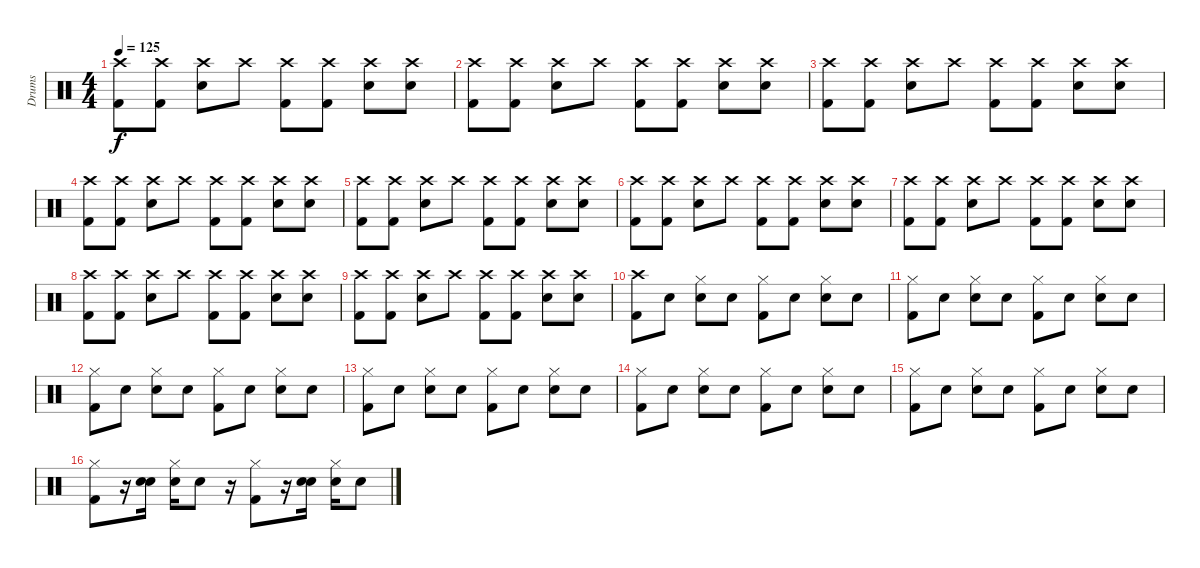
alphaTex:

\track ("Drums" "Drums") {instrument percussion}
\staff {score}
\articulation defaults
\ts (4 4)
\tempo 125
\clef neutral
\ks c
("Kick (hit) 2" "Crash high (hit)").8{dy f} ("Kick (hit) 2" "Crash high (hit)").8 ("Snare (hit) 2" "Crash high (hit)").8 "Crash high (hit)".8 ("Kick (hit) 2" "Crash high (hit)").8 ("Kick (hit) 2" "Crash high (hit)").8 ("Snare (hit) 2" "Crash high (hit)").8 ("Snare (hit)" "Crash high (hit)").8 |
("Kick (hit) 2" "Crash high (hit)").8 ("Kick (hit) 2" "Crash high (hit)").8 ("Snare (hit) 2" "Crash high (hit)").8 "Crash high (hit)".8 ("Kick (hit) 2" "Crash high (hit)").8 ("Kick (hit) 2" "Crash high (hit)").8 ("Snare (hit) 2" "Crash high (hit)").8 ("Snare (hit)" "Crash high (hit)").8 |
("Kick (hit) 2" "Crash high (hit)").8 ("Kick (hit) 2" "Crash high (hit)").8 ("Snare (hit) 2" "Crash high (hit)").8 "Crash high (hit)".8 ("Kick (hit) 2" "Crash high (hit)").8 ("Kick (hit) 2" "Crash high (hit)").8 ("Snare (hit) 2" "Crash high (hit)").8 ("Snare (hit)" "Crash high (hit)").8 |
("Kick (hit) 2" "Crash high (hit)").8 ("Kick (hit) 2" "Crash high (hit)").8 ("Snare (hit) 2" "Crash high (hit)").8 "Crash high (hit)".8 ("Kick (hit) 2" "Crash high (hit)").8 ("Kick (hit) 2" "Crash high (hit)").8 ("Snare (hit) 2" "Crash high (hit)").8 ("Snare (hit)" "Crash high (hit)").8 |
("Kick (hit) 2" "Crash high (hit)").8 ("Kick (hit) 2" "Crash high (hit)").8 ("Snare (hit) 2" "Crash high (hit)").8 "Crash high (hit)".8 ("Kick (hit) 2" "Crash high (hit)").8 ("Kick (hit) 2" "Crash high (hit)").8 ("Snare (hit) 2" "Crash high (hit)").8 ("Snare (hit)" "Crash high (hit)").8 |
("Kick (hit) 2" "Crash high (hit)").8 ("Kick (hit) 2" "Crash high (hit)").8 ("Snare (hit) 2" "Crash high (hit)").8 "Crash high (hit)".8 ("Kick (hit) 2" "Crash high (hit)").8 ("Kick (hit) 2" "Crash high (hit)").8 ("Snare (hit) 2" "Crash high (hit)").8 ("Snare (hit)" "Crash high (hit)").8 |
("Kick (hit) 2" "Crash high (hit)").8 ("Kick (hit) 2" "Crash high (hit)").8 ("Snare (hit) 2" "Crash high (hit)").8 "Crash high (hit)".8 ("Kick (hit) 2" "Crash high (hit)").8 ("Kick (hit) 2" "Crash high (hit)").8 ("Snare (hit) 2" "Crash high (hit)").8 ("Snare (hit)" "Crash high (hit)").8 |
("Kick (hit) 2" "Crash high (hit)").8 ("Kick (hit) 2" "Crash high (hit)").8 ("Snare (hit) 2" "Crash high (hit)").8 "Crash high (hit)".8 ("Kick (hit) 2" "Crash high (hit)").8 ("Kick (hit) 2" "Crash high (hit)").8 ("Snare (hit) 2" "Crash high (hit)").8 ("Snare (hit)" "Crash high (hit)").8 |
("Kick (hit) 2" "Crash high (hit)").8 ("Kick (hit) 2" "Crash high (hit)").8 ("Snare (hit) 2" "Crash high (hit)").8 "Crash high (hit)".8 ("Kick (hit) 2" "Crash high (hit)").8 ("Kick (hit) 2" "Crash high (hit)").8 ("Snare (hit) 2" "Crash high (hit)").8 ("Snare (hit)" "Crash high (hit)").8 |
("Kick (hit) 2" "Crash high (hit)").8 "Snare (hit)".8 ("Snare (hit) 2" "Hi-Hat (closed)").8 "Snare (hit)".8 ("Kick (hit) 2" "Hi-Hat (closed)").8 "Snare (hit)".8 ("Snare (hit) 2" "Hi-Hat (closed)").8 "Snare (hit)".8 |
("Kick (hit) 2" "Hi-Hat (closed)").8 "Snare (hit)".8 ("Snare (hit) 2" "Hi-Hat (closed)").8 "Snare (hit)".8 ("Kick (hit) 2" "Hi-Hat (closed)").8 "Snare (hit)".8 ("Snare (hit) 2" "Hi-Hat (closed)").8 "Snare (hit)".8 |
("Kick (hit) 2" "Hi-Hat (closed)").8 "Snare (hit)".8 ("Snare (hit) 2" "Hi-Hat (closed)").8 "Snare (hit)".8 ("Kick (hit) 2" "Hi-Hat (closed)").8 "Snare (hit)".8 ("Snare (hit) 2" "Hi-Hat (closed)").8 "Snare (hit)".8 |
("Kick (hit) 2" "Hi-Hat (closed)").8 "Snare (hit)".8 ("Snare (hit) 2" "Hi-Hat (closed)").8 "Snare (hit)".8 ("Kick (hit) 2" "Hi-Hat (closed)").8 "Snare (hit)".8 ("Snare (hit) 2" "Hi-Hat (closed)").8 "Snare (hit)".8 |
("Kick (hit) 2" "Hi-Hat (closed)").8 "Snare (hit)".8 ("Snare (hit) 2" "Hi-Hat (closed)").8 "Snare (hit)".8 ("Kick (hit) 2" "Hi-Hat (closed)").8 "Snare (hit)".8 ("Snare (hit) 2" "Hi-Hat (closed)").8 "Snare (hit)".8 |
("Kick (hit) 2" "Hi-Hat (closed)").8 "Snare (hit)".8 ("Snare (hit) 2" "Hi-Hat (closed)").8 "Snare (hit)".8 ("Kick (hit) 2" "Hi-Hat (closed)").8 "Snare (hit)".8 ("Snare (hit) 2" "Hi-Hat (closed)").8 "Snare (hit)".8 |
("Kick (hit) 2" "Hi-Hat (closed)").8 r.16 ("Snare (hit) 2" "Snare (hit)").16 ("Snare (hit) 2" "Hi-Hat (closed)").16 "Snare (hit)".8 r.16 ("Kick (hit) 2" "Hi-Hat (closed)").8 r.16 ("Snare (hit) 2" "Snare (hit)").16 ("Snare (hit) 2" "Hi-Hat (closed)").16 "Snare (hit)".8
